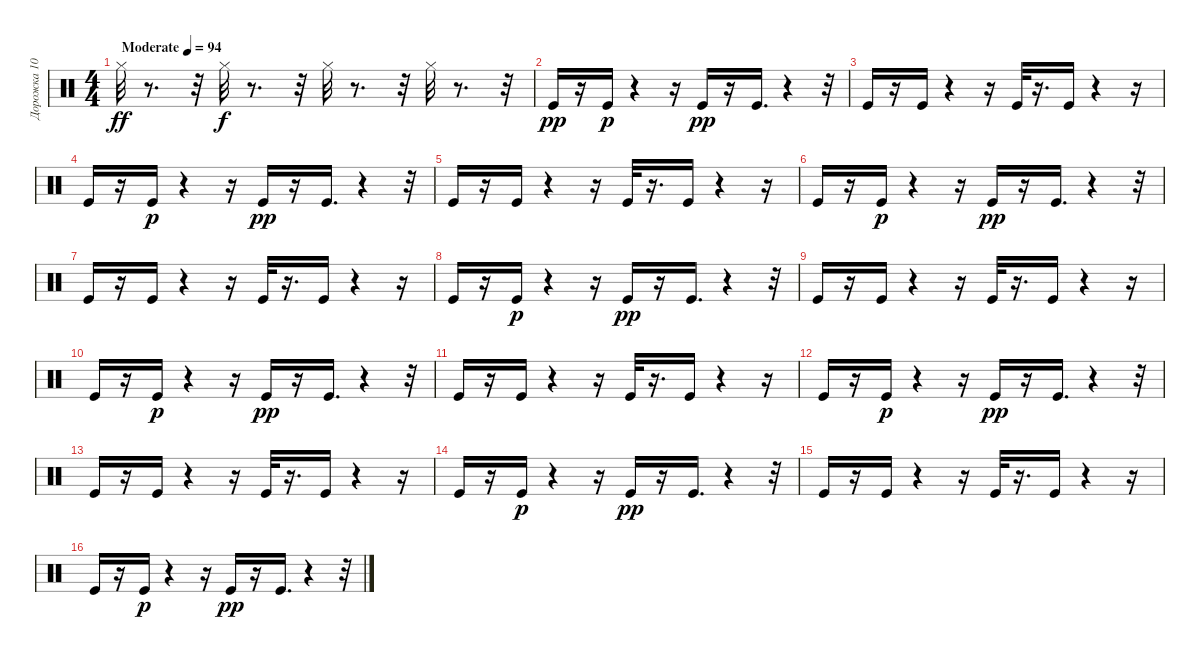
\track ("Дорожка 10" "Дорожка 10") {instrument percussion}
\staff {score}
\articulation defaults
\ts (4 4)
\tempo (94 "Moderate")
\clef neutral
\ks c "Hi-Hat (closed)".32{dy ff}
r.8{d} r.32 "Hi-Hat (closed)".32{dy f} r.8{d} r.32 "Hi-Hat (closed)".32 r.8{d} r.32 "Hi-Hat (closed)".32 r.8{d} r.32 |
"Kick (hit)".16{dy pp} r.16 "Kick (hit)".16{dy p} r.4 r.16 "Kick (hit)".16{dy pp} r.16 "Kick (hit)".16{d} r.4 r.32 |
"Kick (hit)".16 r.16 "Kick (hit)".16 r.4 r.16 "Kick (hit)".32 r.16{d} "Kick (hit)".16 r.4 r.16 |
"Kick (hit)".16 r.16 "Kick (hit)".16{dy p} r.4 r.16 "Kick (hit)".16{dy pp} r.16 "Kick (hit)".16{d} r.4 r.32 |
"Kick (hit)".16 r.16 "Kick (hit)".16 r.4 r.16 "Kick (hit)".32 r.16{d} "Kick (hit)".16 r.4 r.16 |
"Kick (hit)".16 r.16 "Kick (hit)".16{dy p} r.4 r.16 "Kick (hit)".16{dy pp} r.16 "Kick (hit)".16{d} r.4 r.32 |
"Kick (hit)".16 r.16 "Kick (hit)".16 r.4 r.16 "Kick (hit)".32 r.16{d} "Kick (hit)".16 r.4 r.16 |
"Kick (hit)".16 r.16 "Kick (hit)".16{dy p} r.4 r.16 "Kick (hit)".16{dy pp} r.16 "Kick (hit)".16{d} r.4 r.32 |
"Kick (hit)".16 r.16 "Kick (hit)".16 r.4 r.16 "Kick (hit)".32 r.16{d} "Kick (hit)".16 r.4 r.16 |
"Kick (hit)".16 r.16 "Kick (hit)".16{dy p} r.4 r.16 "Kick (hit)".16{dy pp} r.16 "Kick (hit)".16{d} r.4 r.32 |
"Kick (hit)".16 r.16 "Kick (hit)".16 r.4 r.16 "Kick (hit)".32 r.16{d} "Kick (hit)".16 r.4 r.16 |
"Kick (hit)".16 r.16 "Kick (hit)".16{dy p} r.4 r.16 "Kick (hit)".16{dy pp} r.16 "Kick (hit)".16{d} r.4 r.32 |
"Kick (hit)".16 r.16 "Kick (hit)".16 r.4 r.16 "Kick (hit)".32 r.16{d} "Kick (hit)".16 r.4 r.16 |
"Kick (hit)".16 r.16 "Kick (hit)".16{dy p} r.4 r.16 "Kick (hit)".16{dy pp} r.16 "Kick (hit)".16{d} r.4 r.32 |
"Kick (hit)".16 r.16 "Kick (hit)".16 r.4 r.16 "Kick (hit)".32 r.16{d} "Kick (hit)".16 r.4 r.16 |
"Kick (hit)".16 r.16 "Kick (hit)".16{dy p} r.4 r.16 "Kick (hit)".16{dy pp} r.16 "Kick (hit)".16{d} r.4 r.32
